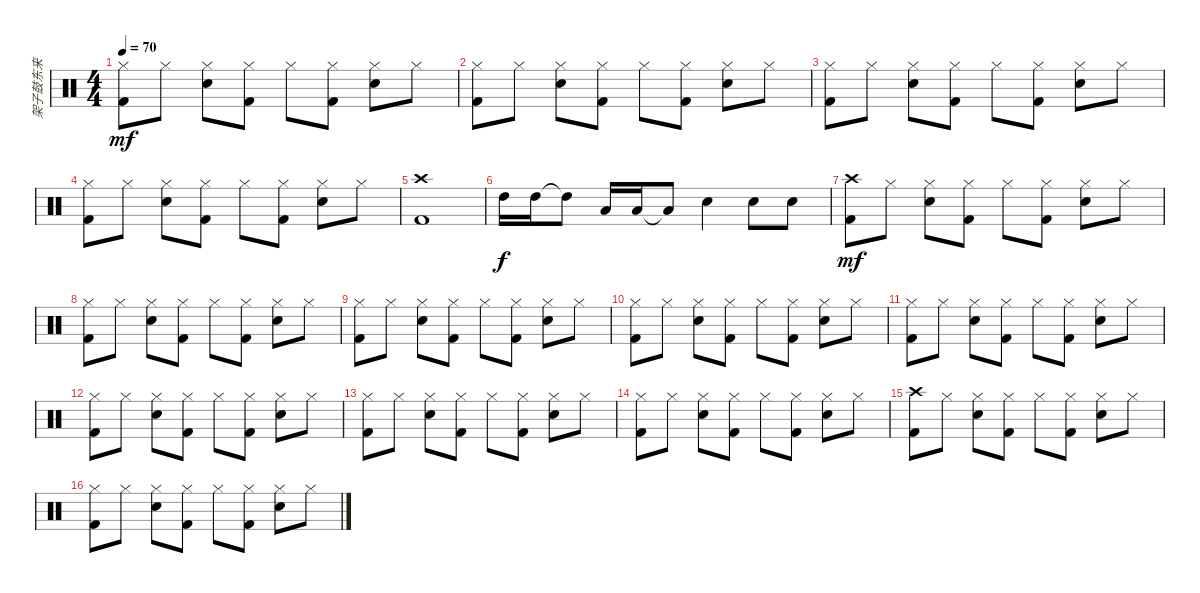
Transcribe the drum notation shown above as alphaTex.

\track ("架子鼓东来" "架子鼓东来") {instrument percussion}
\staff {score}
\articulation defaults
\ts (4 4)
\tempo 70
\clef neutral
\ks c
("Hi-Hat (closed)" "Kick (hit) 2").8{dy mf} "Hi-Hat (closed)".8 ("Hi-Hat (closed)" "Snare (hit) 2").8 ("Hi-Hat (closed)" "Kick (hit) 2").8 "Hi-Hat (closed)".8 ("Hi-Hat (closed)" "Kick (hit) 2").8 ("Hi-Hat (closed)" "Snare (hit) 2").8 "Hi-Hat (closed)".8 |
("Hi-Hat (closed)" "Kick (hit) 2").8 "Hi-Hat (closed)".8 ("Hi-Hat (closed)" "Snare (hit) 2").8 ("Hi-Hat (closed)" "Kick (hit) 2").8 "Hi-Hat (closed)".8 ("Hi-Hat (closed)" "Kick (hit) 2").8 ("Hi-Hat (closed)" "Snare (hit) 2").8 "Hi-Hat (closed)".8 |
("Hi-Hat (closed)" "Kick (hit) 2").8 "Hi-Hat (closed)".8 ("Hi-Hat (closed)" "Snare (hit) 2").8 ("Hi-Hat (closed)" "Kick (hit) 2").8 "Hi-Hat (closed)".8 ("Hi-Hat (closed)" "Kick (hit) 2").8 ("Hi-Hat (closed)" "Snare (hit) 2").8 "Hi-Hat (closed)".8 |
("Hi-Hat (closed)" "Kick (hit) 2").8 "Hi-Hat (closed)".8 ("Hi-Hat (closed)" "Snare (hit) 2").8 ("Hi-Hat (closed)" "Kick (hit) 2").8 "Hi-Hat (closed)".8 ("Hi-Hat (closed)" "Kick (hit) 2").8 ("Hi-Hat (closed)" "Snare (hit) 2").8 "Hi-Hat (closed)".8 |
("Crash high (hit)" "Kick (hit) 2").1 |
"High Tom (hit)".16{dy f} "High Tom (hit)".16 "High Tom (hit)"{t}.8 "Low Tom (hit)".16 "Low Tom (hit)".16 "Low Tom (hit)"{t}.8 "Snare (hit) 2".4 "Snare (hit) 2".8 "Snare (hit) 2".8 |
("Crash high (hit)" "Kick (hit) 2").8{dy mf} "Hi-Hat (closed)".8 ("Hi-Hat (closed)" "Snare (hit) 2").8 ("Hi-Hat (closed)" "Kick (hit) 2").8 "Hi-Hat (closed)".8 ("Hi-Hat (closed)" "Kick (hit) 2").8 ("Hi-Hat (closed)" "Snare (hit) 2").8 "Hi-Hat (closed)".8 |
("Hi-Hat (closed)" "Kick (hit) 2").8 "Hi-Hat (closed)".8 ("Hi-Hat (closed)" "Snare (hit) 2").8 ("Hi-Hat (closed)" "Kick (hit) 2").8 "Hi-Hat (closed)".8 ("Hi-Hat (closed)" "Kick (hit) 2").8 ("Hi-Hat (closed)" "Snare (hit) 2").8 "Hi-Hat (closed)".8 |
("Hi-Hat (closed)" "Kick (hit) 2").8 "Hi-Hat (closed)".8 ("Hi-Hat (closed)" "Snare (hit) 2").8 ("Hi-Hat (closed)" "Kick (hit) 2").8 "Hi-Hat (closed)".8 ("Hi-Hat (closed)" "Kick (hit) 2").8 ("Hi-Hat (closed)" "Snare (hit) 2").8 "Hi-Hat (closed)".8 |
("Hi-Hat (closed)" "Kick (hit) 2").8 "Hi-Hat (closed)".8 ("Hi-Hat (closed)" "Snare (hit) 2").8 ("Hi-Hat (closed)" "Kick (hit) 2").8 "Hi-Hat (closed)".8 ("Hi-Hat (closed)" "Kick (hit) 2").8 ("Hi-Hat (closed)" "Snare (hit) 2").8 "Hi-Hat (closed)".8 |
("Hi-Hat (closed)" "Kick (hit) 2").8 "Hi-Hat (closed)".8 ("Hi-Hat (closed)" "Snare (hit) 2").8 ("Hi-Hat (closed)" "Kick (hit) 2").8 "Hi-Hat (closed)".8 ("Hi-Hat (closed)" "Kick (hit) 2").8 ("Hi-Hat (closed)" "Snare (hit) 2").8 "Hi-Hat (closed)".8 |
("Hi-Hat (closed)" "Kick (hit) 2").8 "Hi-Hat (closed)".8 ("Hi-Hat (closed)" "Snare (hit) 2").8 ("Hi-Hat (closed)" "Kick (hit) 2").8 "Hi-Hat (closed)".8 ("Hi-Hat (closed)" "Kick (hit) 2").8 ("Hi-Hat (closed)" "Snare (hit) 2").8 "Hi-Hat (closed)".8 |
("Hi-Hat (closed)" "Kick (hit) 2").8 "Hi-Hat (closed)".8 ("Hi-Hat (closed)" "Snare (hit) 2").8 ("Hi-Hat (closed)" "Kick (hit) 2").8 "Hi-Hat (closed)".8 ("Hi-Hat (closed)" "Kick (hit) 2").8 ("Hi-Hat (closed)" "Snare (hit) 2").8 "Hi-Hat (closed)".8 |
("Hi-Hat (closed)" "Kick (hit) 2").8 "Hi-Hat (closed)".8 ("Hi-Hat (closed)" "Snare (hit) 2").8 ("Hi-Hat (closed)" "Kick (hit) 2").8 "Hi-Hat (closed)".8 ("Hi-Hat (closed)" "Kick (hit) 2").8 ("Hi-Hat (closed)" "Snare (hit) 2").8 "Hi-Hat (closed)".8 |
("Crash high (hit)" "Kick (hit) 2").8 "Hi-Hat (closed)".8 ("Hi-Hat (closed)" "Snare (hit) 2").8 ("Hi-Hat (closed)" "Kick (hit) 2").8 "Hi-Hat (closed)".8 ("Hi-Hat (closed)" "Kick (hit) 2").8 ("Hi-Hat (closed)" "Snare (hit) 2").8 "Hi-Hat (closed)".8 |
("Hi-Hat (closed)" "Kick (hit) 2").8 "Hi-Hat (closed)".8 ("Hi-Hat (closed)" "Snare (hit) 2").8 ("Hi-Hat (closed)" "Kick (hit) 2").8 "Hi-Hat (closed)".8 ("Hi-Hat (closed)" "Kick (hit) 2").8 ("Hi-Hat (closed)" "Snare (hit) 2").8 "Hi-Hat (closed)".8
